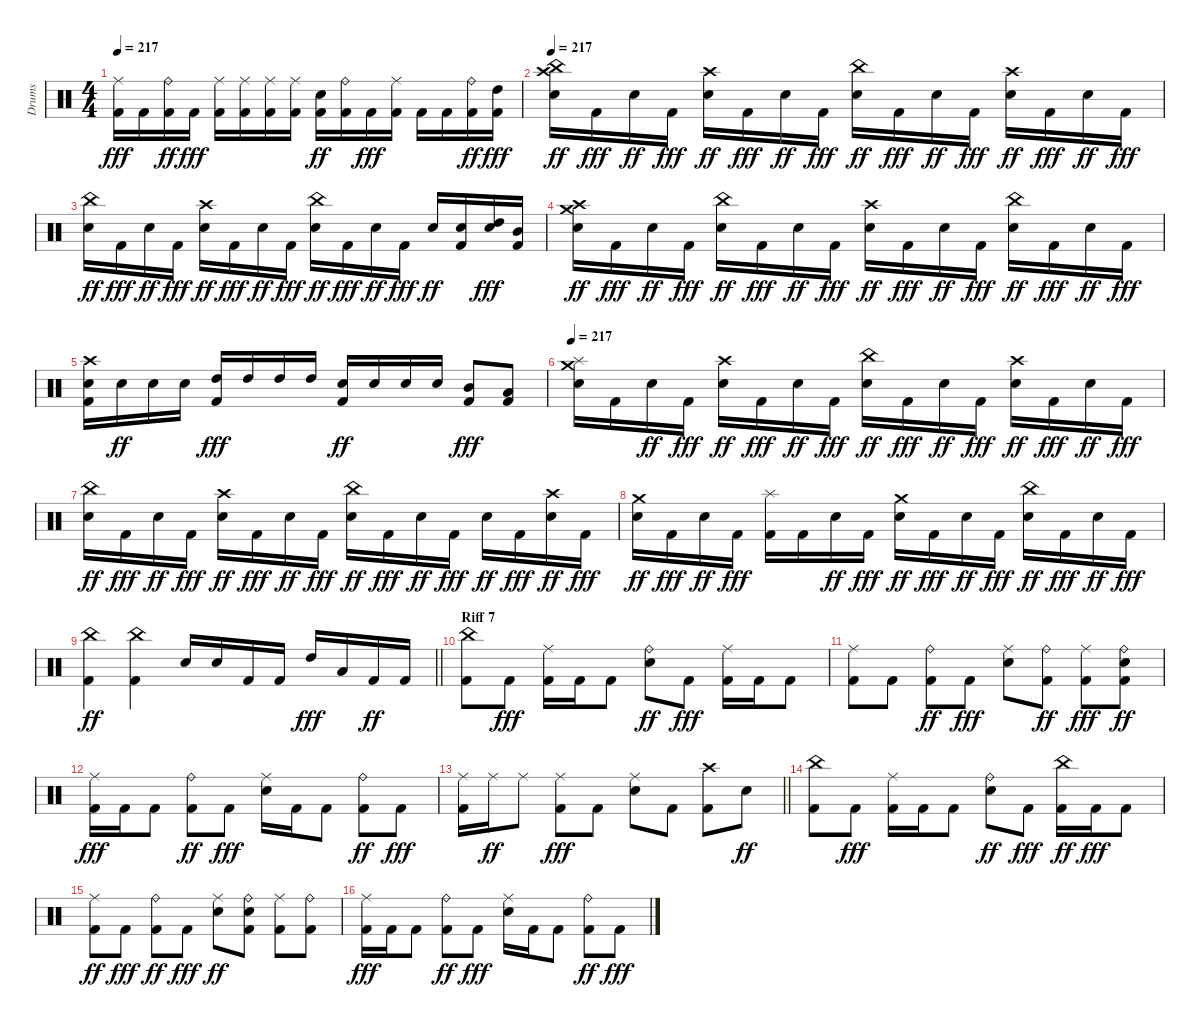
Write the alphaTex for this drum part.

\track ("Drums" "Drums") {instrument percussion}
\staff {score}
\articulation defaults
\ts (4 4)
\tempo 217
\clef neutral
\ks c
("Kick (hit) 2" "Ride (middle)").16{dy fff} "Kick (hit) 2".16 ("Kick (hit) 2" "Ride (bell)").16{dy ff} "Kick (hit) 2".16{dy fff} ("Kick (hit) 2" "Ride (middle)").16 ("Kick (hit) 2" "Ride (middle)").16 ("Kick (hit) 2" "Ride (middle)").16 ("Kick (hit) 2" "Ride (middle)").16 ("Kick (hit) 2" "Snare (hit) 2").16{dy ff} ("Kick (hit) 2" "Ride (bell)").16 "Kick (hit) 2".16{dy fff} ("Kick (hit) 2" "Ride (middle)").16 "Kick (hit) 2".16 "Kick (hit) 2".16 ("Kick (hit) 2" "Ride (bell)").16{dy ff} ("Kick (hit) 2" "High Tom (hit)").16{dy fff} |
\tempo 217
("Snare (hit) 2" "Crash high (hit)" "China (hit)").16{dy ff} "Kick (hit) 2".16{dy fff} "Snare (hit) 2".16{dy ff} "Kick (hit) 2".16{dy fff} ("Snare (hit) 2" "Crash high (hit)").16{dy ff} "Kick (hit) 2".16{dy fff} "Snare (hit) 2".16{dy ff} "Kick (hit) 2".16{dy fff} ("Snare (hit) 2" "China (hit)").16{dy ff} "Kick (hit) 2".16{dy fff} "Snare (hit) 2".16{dy ff} "Kick (hit) 2".16{dy fff} ("Snare (hit) 2" "Crash high (hit)").16{dy ff} "Kick (hit) 2".16{dy fff} "Snare (hit) 2".16{dy ff} "Kick (hit) 2".16{dy fff} |
("Snare (hit) 2" "China (hit)").16{dy ff} "Kick (hit) 2".16{dy fff} "Snare (hit) 2".16{dy ff} "Kick (hit) 2".16{dy fff} ("Snare (hit) 2" "Crash high (hit)").16{dy ff} "Kick (hit) 2".16{dy fff} "Snare (hit) 2".16{dy ff} "Kick (hit) 2".16{dy fff} ("Snare (hit) 2" "China (hit)").16{dy ff} "Kick (hit) 2".16{dy fff} "Snare (hit) 2".16{dy ff} "Kick (hit) 2".16{dy fff} "Snare (hit) 2".16{dy ff} ("Kick (hit) 2" "Snare (hit) 2").16 ("Snare (hit) 2" "High Tom (hit)").16{dy fff} ("Kick (hit) 2" "Mid Tom (hit)").16 |
("Snare (hit) 2" "Crash high (hit)" "Crash medium (hit)").16{dy ff} "Kick (hit) 2".16{dy fff} "Snare (hit) 2".16{dy ff} "Kick (hit) 2".16{dy fff} ("Snare (hit) 2" "China (hit)").16{dy ff} "Kick (hit) 2".16{dy fff} "Snare (hit) 2".16{dy ff} "Kick (hit) 2".16{dy fff} ("Snare (hit) 2" "Crash high (hit)").16{dy ff} "Kick (hit) 2".16{dy fff} "Snare (hit) 2".16{dy ff} "Kick (hit) 2".16{dy fff} ("Snare (hit) 2" "China (hit)").16{dy ff} "Kick (hit) 2".16{dy fff} "Snare (hit) 2".16{dy ff} "Kick (hit) 2".16{dy fff} |
("Kick (hit) 2" "Snare (hit) 2" "Crash high (hit)").16 "Snare (hit) 2".16{dy ff} "Snare (hit) 2".16 "Snare (hit) 2".16 ("Kick (hit) 2" "High Tom (hit)").16{dy fff} "High Tom (hit)".16 "High Tom (hit)".16 "High Tom (hit)".16 ("Kick (hit) 2" "Snare (hit) 2").16{dy ff} "Snare (hit) 2".16 "Snare (hit) 2".16 "Snare (hit) 2".16 ("Kick (hit) 2" "Mid Tom (hit)").8{dy fff} ("Kick (hit) 2" "Low Tom (hit)").8 |
\tempo 217
("Snare (hit) 2" "Splash (hit)" "Crash medium (hit)").16 "Kick (hit) 2".16 "Snare (hit) 2".16{dy ff} "Kick (hit) 2".16{dy fff} ("Snare (hit) 2" "Crash high (hit)").16{dy ff} "Kick (hit) 2".16{dy fff} "Snare (hit) 2".16{dy ff} "Kick (hit) 2".16{dy fff} ("Snare (hit) 2" "China (hit)").16{dy ff} "Kick (hit) 2".16{dy fff} "Snare (hit) 2".16{dy ff} "Kick (hit) 2".16{dy fff} ("Snare (hit) 2" "Crash high (hit)").16{dy ff} "Kick (hit) 2".16{dy fff} "Snare (hit) 2".16{dy ff} "Kick (hit) 2".16{dy fff} |
("Snare (hit) 2" "China (hit)").16{dy ff} "Kick (hit) 2".16{dy fff} "Snare (hit) 2".16{dy ff} "Kick (hit) 2".16{dy fff} ("Snare (hit) 2" "Crash high (hit)").16{dy ff} "Kick (hit) 2".16{dy fff} "Snare (hit) 2".16{dy ff} "Kick (hit) 2".16{dy fff} ("Snare (hit) 2" "China (hit)").16{dy ff} "Kick (hit) 2".16{dy fff} "Snare (hit) 2".16{dy ff} "Kick (hit) 2".16{dy fff} "Snare (hit) 2".16{dy ff} "Kick (hit) 2".16{dy fff} ("Snare (hit) 2" "Crash high (hit)").16{dy ff} "Kick (hit) 2".16{dy fff} |
("Snare (hit) 2" "Crash medium (hit)").16{dy ff} "Kick (hit) 2".16{dy fff} "Snare (hit) 2".16{dy ff} "Kick (hit) 2".16{dy fff} ("Kick (hit) 2" "Splash (hit)").16 "Kick (hit) 2".16 "Snare (hit) 2".16{dy ff} "Kick (hit) 2".16{dy fff} ("Snare (hit) 2" "Crash medium (hit)").16{dy ff} "Kick (hit) 2".16{dy fff} "Snare (hit) 2".16{dy ff} "Kick (hit) 2".16{dy fff} ("Snare (hit) 2" "China (hit)").16{dy ff} "Kick (hit) 2".16{dy fff} "Snare (hit) 2".16{dy ff} "Kick (hit) 2".16{dy fff} |
\barLineRight lightlight
("Kick (hit) 2" "China (hit)").4{dy ff} ("Kick (hit) 2" "China (hit)").4 "Snare (hit) 2".16 "Snare (hit) 2".16 "Kick (hit) 2".16 "Kick (hit) 2".16 "High Tom (hit)".16{dy fff} "Low Tom (hit)".16 "Kick (hit) 2".16{dy ff} "Kick (hit) 2".16 |
\section ("" "Riff 7")
("Kick (hit) 2" "China (hit)").8 "Kick (hit) 2".8{dy fff} ("Kick (hit) 2" "Ride (middle)").16 "Kick (hit) 2".16 "Kick (hit) 2".8 ("Snare (hit) 2" "Ride (bell)").8{dy ff} "Kick (hit) 2".8{dy fff} ("Kick (hit) 2" "Ride (middle)").16 "Kick (hit) 2".16 "Kick (hit) 2".8 |
("Kick (hit) 2" "Ride (middle)").8 "Kick (hit) 2".8 ("Kick (hit) 2" "Ride (bell)").8{dy ff} "Kick (hit) 2".8{dy fff} ("Snare (hit) 2" "Ride (middle)").8 ("Kick (hit) 2" "Ride (bell)").8{dy ff} ("Kick (hit) 2" "Ride (middle)").8{dy fff} ("Kick (hit) 2" "Snare (hit) 2" "Ride (bell)").8{dy ff} |
("Kick (hit) 2" "Ride (middle)").16{dy fff} "Kick (hit) 2".16 "Kick (hit) 2".8 ("Kick (hit) 2" "Ride (bell)").8{dy ff} "Kick (hit) 2".8{dy fff} ("Snare (hit) 2" "Ride (middle)").16 "Kick (hit) 2".16 "Kick (hit) 2".8 ("Kick (hit) 2" "Ride (bell)").8{dy ff} "Kick (hit) 2".8{dy fff} |
\barLineRight lightlight
("Kick (hit) 2" "Ride (middle)").16 "Ride (middle)".16{dy ff} "Ride (middle)".8 ("Kick (hit) 2" "Ride (middle)").8{dy fff} "Kick (hit) 2".8 ("Snare (hit) 2" "Ride (middle)").8 "Kick (hit) 2".8 ("Kick (hit) 2" "Crash high (hit)").8 "Snare (hit) 2".8{dy ff} |
("Kick (hit) 2" "China (hit)").8 "Kick (hit) 2".8{dy fff} ("Kick (hit) 2" "Ride (middle)").16 "Kick (hit) 2".16 "Kick (hit) 2".8 ("Snare (hit) 2" "Ride (bell)").8{dy ff} "Kick (hit) 2".8{dy fff} ("Kick (hit) 2" "China (hit)").16{dy ff} "Kick (hit) 2".16{dy fff} "Kick (hit) 2".8 |
("Kick (hit) 2" "Ride (middle)").8{dy ff} "Kick (hit) 2".8{dy fff} ("Kick (hit) 2" "Ride (bell)").8{dy ff} "Kick (hit) 2".8{dy fff} ("Snare (hit) 2" "Ride (middle)").8{dy ff} ("Kick (hit) 2" "Snare (hit) 2" "Ride (bell)").8 ("Kick (hit) 2" "Ride (middle)").8 ("Kick (hit) 2" "Ride (bell)").8 |
("Kick (hit) 2" "Ride (middle)").16{dy fff} "Kick (hit) 2".16 "Kick (hit) 2".8 ("Kick (hit) 2" "Ride (bell)").8{dy ff} "Kick (hit) 2".8{dy fff} ("Snare (hit) 2" "Ride (middle)").16 "Kick (hit) 2".16 "Kick (hit) 2".8 ("Kick (hit) 2" "Ride (bell)").8{dy ff} "Kick (hit) 2".8{dy fff}
